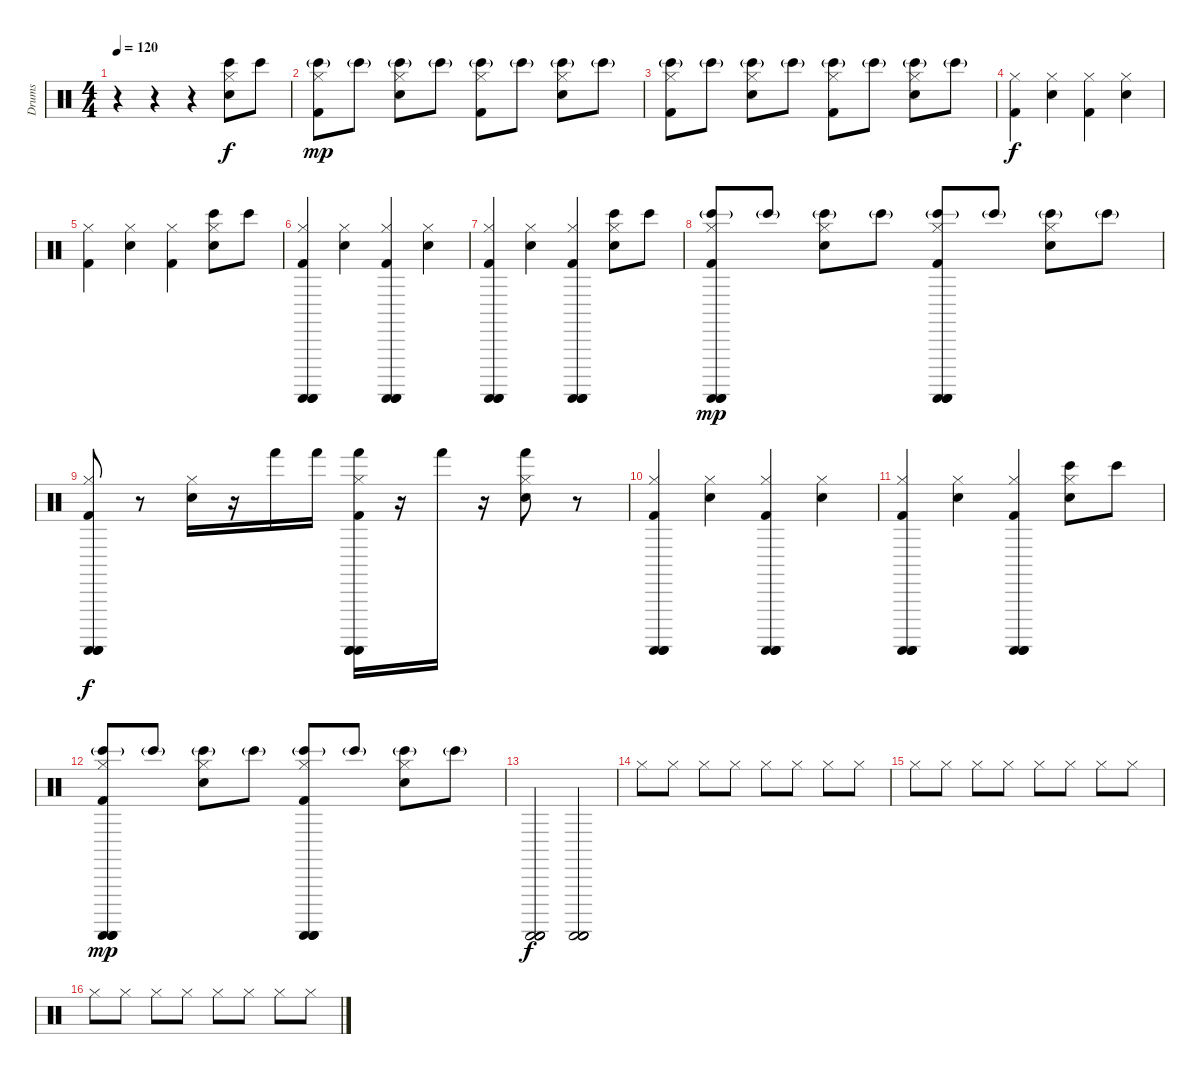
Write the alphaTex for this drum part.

\track ("Drums" "Drums") {instrument percussion}
\staff {score}
\articulation defaults
\ts (4 4)
\tempo 120
\clef neutral
\ks c
r.4{dy f} r.4 r.4 ("Snare (hit) 2" "Hi-Hat (closed)" "Bongo High (hit)").8 "Bongo High (hit)".8 |
("Kick (hit) 2" "Hi-Hat (closed)" "Bongo High (hit)"{g}).8{dy mp} "Bongo High (hit)"{g}.8 ("Snare (hit) 2" "Hi-Hat (closed)" "Bongo High (hit)"{g}).8 "Bongo High (hit)"{g}.8 ("Kick (hit) 2" "Hi-Hat (closed)" "Bongo High (hit)"{g}).8 "Bongo High (hit)"{g}.8 ("Snare (hit) 2" "Hi-Hat (closed)" "Bongo High (hit)"{g}).8 "Bongo High (hit)"{g}.8 |
("Kick (hit) 2" "Hi-Hat (closed)" "Bongo High (hit)"{g}).8 "Bongo High (hit)"{g}.8 ("Snare (hit) 2" "Hi-Hat (closed)" "Bongo High (hit)"{g}).8 "Bongo High (hit)"{g}.8 ("Kick (hit) 2" "Hi-Hat (closed)" "Bongo High (hit)"{g}).8 "Bongo High (hit)"{g}.8 ("Snare (hit) 2" "Hi-Hat (closed)" "Bongo High (hit)"{g}).8 "Bongo High (hit)"{g}.8 |
("Kick (hit) 2" "Hi-Hat (closed)").4{dy f} ("Snare (hit) 2" "Hi-Hat (closed)").4 ("Kick (hit) 2" "Hi-Hat (closed)").4 ("Snare (hit) 2" "Hi-Hat (closed)").4 |
("Kick (hit) 2" "Hi-Hat (closed)").4 ("Snare (hit) 2" "Hi-Hat (closed)").4 ("Kick (hit) 2" "Hi-Hat (closed)").4 ("Snare (hit) 2" "Hi-Hat (closed)" "Bongo High (hit)").8 "Bongo High (hit)".8 |
("Kick (hit) 2" "Hi-Hat (closed)" "Guiro (scrap-return)" "Guiro (scrap-return)" "Guiro (scrap-return)").4 ("Snare (hit) 2" "Hi-Hat (closed)").4 ("Kick (hit) 2" "Hi-Hat (closed)" "Guiro (scrap-return)" "Guiro (scrap-return)" "Guiro (scrap-return)").4 ("Snare (hit) 2" "Hi-Hat (closed)").4 |
("Kick (hit) 2" "Hi-Hat (closed)" "Guiro (scrap-return)" "Guiro (scrap-return)" "Guiro (scrap-return)").4 ("Snare (hit) 2" "Hi-Hat (closed)").4 ("Kick (hit) 2" "Hi-Hat (closed)" "Guiro (scrap-return)" "Guiro (scrap-return)" "Guiro (scrap-return)").4 ("Snare (hit) 2" "Hi-Hat (closed)" "Bongo High (hit)").8 "Bongo High (hit)".8 |
("Kick (hit) 2" "Hi-Hat (closed)" "Guiro (scrap-return)" "Guiro (scrap-return)" "Bongo High (hit)"{g} "Guiro (scrap-return)").8{dy mp} "Bongo High (hit)"{g}.8 ("Snare (hit) 2" "Hi-Hat (closed)" "Bongo High (hit)"{g}).8 "Bongo High (hit)"{g}.8 ("Kick (hit) 2" "Hi-Hat (closed)" "Guiro (scrap-return)" "Guiro (scrap-return)" "Bongo High (hit)"{g} "Guiro (scrap-return)").8 "Bongo High (hit)"{g}.8 ("Snare (hit) 2" "Hi-Hat (closed)" "Bongo High (hit)"{g}).8 "Bongo High (hit)"{g}.8 |
("Kick (hit) 2" "Hi-Hat (closed)" "Guiro (scrap-return)" "Guiro (scrap-return)" "Guiro (scrap-return)").8{dy f} r.8 ("Snare (hit) 2" "Hi-Hat (closed)").16 r.16 "Hand (hit)".16 "Hand (hit)".16 ("Kick (hit) 2" "Hi-Hat (closed)" "Hand (hit)" "Guiro (scrap-return)" "Guiro (scrap-return)" "Guiro (scrap-return)").16 r.16 "Hand (hit)".16 r.16 ("Snare (hit) 2" "Hi-Hat (closed)" "Hand (hit)").8 r.8 |
("Kick (hit) 2" "Hi-Hat (closed)" "Guiro (scrap-return)" "Guiro (scrap-return)" "Guiro (scrap-return)").4 ("Snare (hit) 2" "Hi-Hat (closed)").4 ("Kick (hit) 2" "Hi-Hat (closed)" "Guiro (scrap-return)" "Guiro (scrap-return)" "Guiro (scrap-return)").4 ("Snare (hit) 2" "Hi-Hat (closed)").4 |
("Kick (hit) 2" "Hi-Hat (closed)" "Guiro (scrap-return)" "Guiro (scrap-return)" "Guiro (scrap-return)").4 ("Snare (hit) 2" "Hi-Hat (closed)").4 ("Kick (hit) 2" "Hi-Hat (closed)" "Guiro (scrap-return)" "Guiro (scrap-return)" "Guiro (scrap-return)").4 ("Snare (hit) 2" "Hi-Hat (closed)" "Bongo High (hit)").8 "Bongo High (hit)".8 |
("Kick (hit) 2" "Hi-Hat (closed)" "Guiro (scrap-return)" "Guiro (scrap-return)" "Bongo High (hit)"{g} "Guiro (scrap-return)").8{dy mp} "Bongo High (hit)"{g}.8 ("Snare (hit) 2" "Hi-Hat (closed)" "Bongo High (hit)"{g}).8 "Bongo High (hit)"{g}.8 ("Kick (hit) 2" "Hi-Hat (closed)" "Guiro (scrap-return)" "Guiro (scrap-return)" "Bongo High (hit)"{g} "Guiro (scrap-return)").8 "Bongo High (hit)"{g}.8 ("Snare (hit) 2" "Hi-Hat (closed)" "Bongo High (hit)"{g}).8 "Bongo High (hit)"{g}.8 |
("Guiro (scrap-return)" "Guiro (scrap-return)" "Guiro (scrap-return)" "Guiro (scrap-return)").2{dy f} ("Guiro (scrap-return)" "Guiro (scrap-return)" "Guiro (scrap-return)" "Guiro (scrap-return)").2 |
"Hi-Hat (closed)".8 "Hi-Hat (closed)".8 "Hi-Hat (closed)".8 "Hi-Hat (closed)".8 "Hi-Hat (closed)".8 "Hi-Hat (closed)".8 "Hi-Hat (closed)".8 "Hi-Hat (closed)".8 |
"Hi-Hat (closed)".8 "Hi-Hat (closed)".8 "Hi-Hat (closed)".8 "Hi-Hat (closed)".8 "Hi-Hat (closed)".8 "Hi-Hat (closed)".8 "Hi-Hat (closed)".8 "Hi-Hat (closed)".8 |
"Hi-Hat (closed)".8 "Hi-Hat (closed)".8 "Hi-Hat (closed)".8 "Hi-Hat (closed)".8 "Hi-Hat (closed)".8 "Hi-Hat (closed)".8 "Hi-Hat (closed)".8 "Hi-Hat (closed)".8
